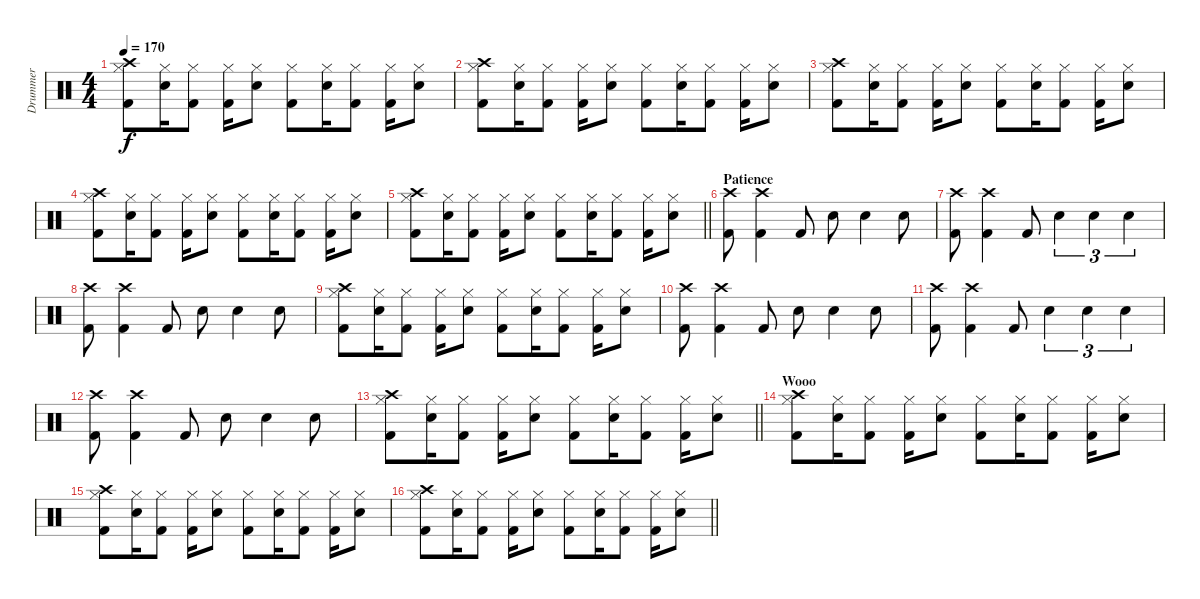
\track ("Drummer" "Drummer") {instrument percussion}
\staff {score}
\articulation defaults
\ts (4 4)
\tempo 170
\clef neutral
\ks c
("Kick (hit) 2" "Hi-Hat (closed)" "Crash high (hit)").8{dy f} ("Electric Snare (hit)" "Hi-Hat (closed)").16 ("Kick (hit) 2" "Hi-Hat (closed)").8 ("Kick (hit) 2" "Hi-Hat (closed)").16 ("Electric Snare (hit)" "Hi-Hat (closed)").8 ("Kick (hit) 2" "Hi-Hat (closed)").8 ("Electric Snare (hit)" "Hi-Hat (closed)").16 ("Kick (hit) 2" "Hi-Hat (closed)").8 ("Kick (hit) 2" "Hi-Hat (closed)").16 ("Electric Snare (hit)" "Hi-Hat (closed)").8 |
("Kick (hit) 2" "Hi-Hat (closed)" "Crash high (hit)").8 ("Electric Snare (hit)" "Hi-Hat (closed)").16 ("Kick (hit) 2" "Hi-Hat (closed)").8 ("Kick (hit) 2" "Hi-Hat (closed)").16 ("Electric Snare (hit)" "Hi-Hat (closed)").8 ("Kick (hit) 2" "Hi-Hat (closed)").8 ("Electric Snare (hit)" "Hi-Hat (closed)").16 ("Kick (hit) 2" "Hi-Hat (closed)").8 ("Kick (hit) 2" "Hi-Hat (closed)").16 ("Electric Snare (hit)" "Hi-Hat (closed)").8 |
("Kick (hit) 2" "Hi-Hat (closed)" "Crash high (hit)").8 ("Electric Snare (hit)" "Hi-Hat (closed)").16 ("Kick (hit) 2" "Hi-Hat (closed)").8 ("Kick (hit) 2" "Hi-Hat (closed)").16 ("Electric Snare (hit)" "Hi-Hat (closed)").8 ("Kick (hit) 2" "Hi-Hat (closed)").8 ("Electric Snare (hit)" "Hi-Hat (closed)").16 ("Kick (hit) 2" "Hi-Hat (closed)").8 ("Kick (hit) 2" "Hi-Hat (closed)").16 ("Electric Snare (hit)" "Hi-Hat (closed)").8 |
("Kick (hit) 2" "Hi-Hat (closed)" "Crash high (hit)").8 ("Electric Snare (hit)" "Hi-Hat (closed)").16 ("Kick (hit) 2" "Hi-Hat (closed)").8 ("Kick (hit) 2" "Hi-Hat (closed)").16 ("Electric Snare (hit)" "Hi-Hat (closed)").8 ("Kick (hit) 2" "Hi-Hat (closed)").8 ("Electric Snare (hit)" "Hi-Hat (closed)").16 ("Kick (hit) 2" "Hi-Hat (closed)").8 ("Kick (hit) 2" "Hi-Hat (closed)").16 ("Electric Snare (hit)" "Hi-Hat (closed)").8 |
\barLineRight lightlight
("Kick (hit) 2" "Hi-Hat (closed)" "Crash high (hit)").8 ("Electric Snare (hit)" "Hi-Hat (closed)").16 ("Kick (hit) 2" "Hi-Hat (closed)").8 ("Kick (hit) 2" "Hi-Hat (closed)").16 ("Electric Snare (hit)" "Hi-Hat (closed)").8 ("Kick (hit) 2" "Hi-Hat (closed)").8 ("Electric Snare (hit)" "Hi-Hat (closed)").16 ("Kick (hit) 2" "Hi-Hat (closed)").8 ("Kick (hit) 2" "Hi-Hat (closed)").16 ("Electric Snare (hit)" "Hi-Hat (closed)").8 |
\section ("" "Patience")
("Kick (hit) 2" "Crash high (hit)").8 ("Kick (hit) 2" "Crash high (hit)").4 "Kick (hit) 2".8 "Electric Snare (hit)".8 "Electric Snare (hit)".4 "Electric Snare (hit)".8 |
("Kick (hit) 2" "Crash high (hit)").8 ("Kick (hit) 2" "Crash high (hit)").4 "Kick (hit) 2".8 "Electric Snare (hit)".4{tu (3 2)} "Electric Snare (hit)".4{tu (3 2)} "Electric Snare (hit)".4{tu (3 2)} |
("Kick (hit) 2" "Crash high (hit)").8 ("Kick (hit) 2" "Crash high (hit)").4 "Kick (hit) 2".8 "Electric Snare (hit)".8 "Electric Snare (hit)".4 "Electric Snare (hit)".8 |
("Kick (hit) 2" "Hi-Hat (closed)" "Crash high (hit)").8 ("Electric Snare (hit)" "Hi-Hat (closed)").16 ("Kick (hit) 2" "Hi-Hat (closed)").8 ("Kick (hit) 2" "Hi-Hat (closed)").16 ("Electric Snare (hit)" "Hi-Hat (closed)").8 ("Kick (hit) 2" "Hi-Hat (closed)").8 ("Electric Snare (hit)" "Hi-Hat (closed)").16 ("Kick (hit) 2" "Hi-Hat (closed)").8 ("Kick (hit) 2" "Hi-Hat (closed)").16 ("Electric Snare (hit)" "Hi-Hat (closed)").8 |
("Kick (hit) 2" "Crash high (hit)").8 ("Kick (hit) 2" "Crash high (hit)").4 "Kick (hit) 2".8 "Electric Snare (hit)".8 "Electric Snare (hit)".4 "Electric Snare (hit)".8 |
("Kick (hit) 2" "Crash high (hit)").8 ("Kick (hit) 2" "Crash high (hit)").4 "Kick (hit) 2".8 "Electric Snare (hit)".4{tu (3 2)} "Electric Snare (hit)".4{tu (3 2)} "Electric Snare (hit)".4{tu (3 2)} |
("Kick (hit) 2" "Crash high (hit)").8 ("Kick (hit) 2" "Crash high (hit)").4 "Kick (hit) 2".8 "Electric Snare (hit)".8 "Electric Snare (hit)".4 "Electric Snare (hit)".8 |
\barLineRight lightlight
("Kick (hit) 2" "Hi-Hat (closed)" "Crash high (hit)").8 ("Electric Snare (hit)" "Hi-Hat (closed)").16 ("Kick (hit) 2" "Hi-Hat (closed)").8 ("Kick (hit) 2" "Hi-Hat (closed)").16 ("Electric Snare (hit)" "Hi-Hat (closed)").8 ("Kick (hit) 2" "Hi-Hat (closed)").8 ("Electric Snare (hit)" "Hi-Hat (closed)").16 ("Kick (hit) 2" "Hi-Hat (closed)").8 ("Kick (hit) 2" "Hi-Hat (closed)").16 ("Electric Snare (hit)" "Hi-Hat (closed)").8 |
\section ("" "Wooo")
("Kick (hit) 2" "Hi-Hat (closed)" "Crash high (hit)").8 ("Electric Snare (hit)" "Hi-Hat (closed)").16 ("Kick (hit) 2" "Hi-Hat (closed)").8 ("Kick (hit) 2" "Hi-Hat (closed)").16 ("Electric Snare (hit)" "Hi-Hat (closed)").8 ("Kick (hit) 2" "Hi-Hat (closed)").8 ("Electric Snare (hit)" "Hi-Hat (closed)").16 ("Kick (hit) 2" "Hi-Hat (closed)").8 ("Kick (hit) 2" "Hi-Hat (closed)").16 ("Electric Snare (hit)" "Hi-Hat (closed)").8 |
("Kick (hit) 2" "Hi-Hat (closed)" "Crash high (hit)").8 ("Electric Snare (hit)" "Hi-Hat (closed)").16 ("Kick (hit) 2" "Hi-Hat (closed)").8 ("Kick (hit) 2" "Hi-Hat (closed)").16 ("Electric Snare (hit)" "Hi-Hat (closed)").8 ("Kick (hit) 2" "Hi-Hat (closed)").8 ("Electric Snare (hit)" "Hi-Hat (closed)").16 ("Kick (hit) 2" "Hi-Hat (closed)").8 ("Kick (hit) 2" "Hi-Hat (closed)").16 ("Electric Snare (hit)" "Hi-Hat (closed)").8 |
\barLineRight lightlight
("Kick (hit) 2" "Hi-Hat (closed)" "Crash high (hit)").8 ("Electric Snare (hit)" "Hi-Hat (closed)").16 ("Kick (hit) 2" "Hi-Hat (closed)").8 ("Kick (hit) 2" "Hi-Hat (closed)").16 ("Electric Snare (hit)" "Hi-Hat (closed)").8 ("Kick (hit) 2" "Hi-Hat (closed)").8 ("Electric Snare (hit)" "Hi-Hat (closed)").16 ("Kick (hit) 2" "Hi-Hat (closed)").8 ("Kick (hit) 2" "Hi-Hat (closed)").16 ("Electric Snare (hit)" "Hi-Hat (closed)").8
